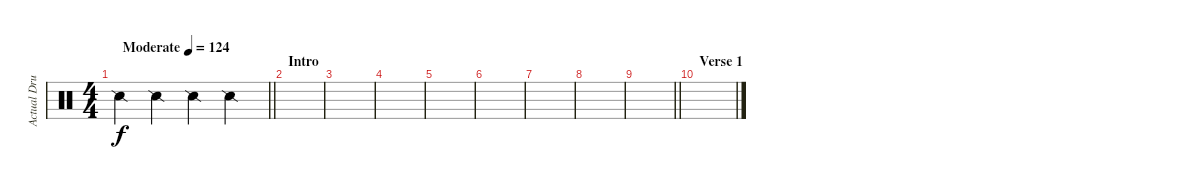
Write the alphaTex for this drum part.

\track ("Actual Drums" "Actual Dru") {instrument percussion}
\staff {score}
\articulation defaults
\ts (4 4)
\tempo (124 "Moderate")
\clef neutral
\barLineRight lightlight
\ks c "Snare (side stick) 2".4{dy f} "Snare (side stick) 2".4 "Snare (side stick) 2".4 "Snare (side stick) 2".4
|
\section ("" "Intro")
|
|
|
|
|
|
|
\barLineRight lightlight
|
\section ("" "Verse 1")
